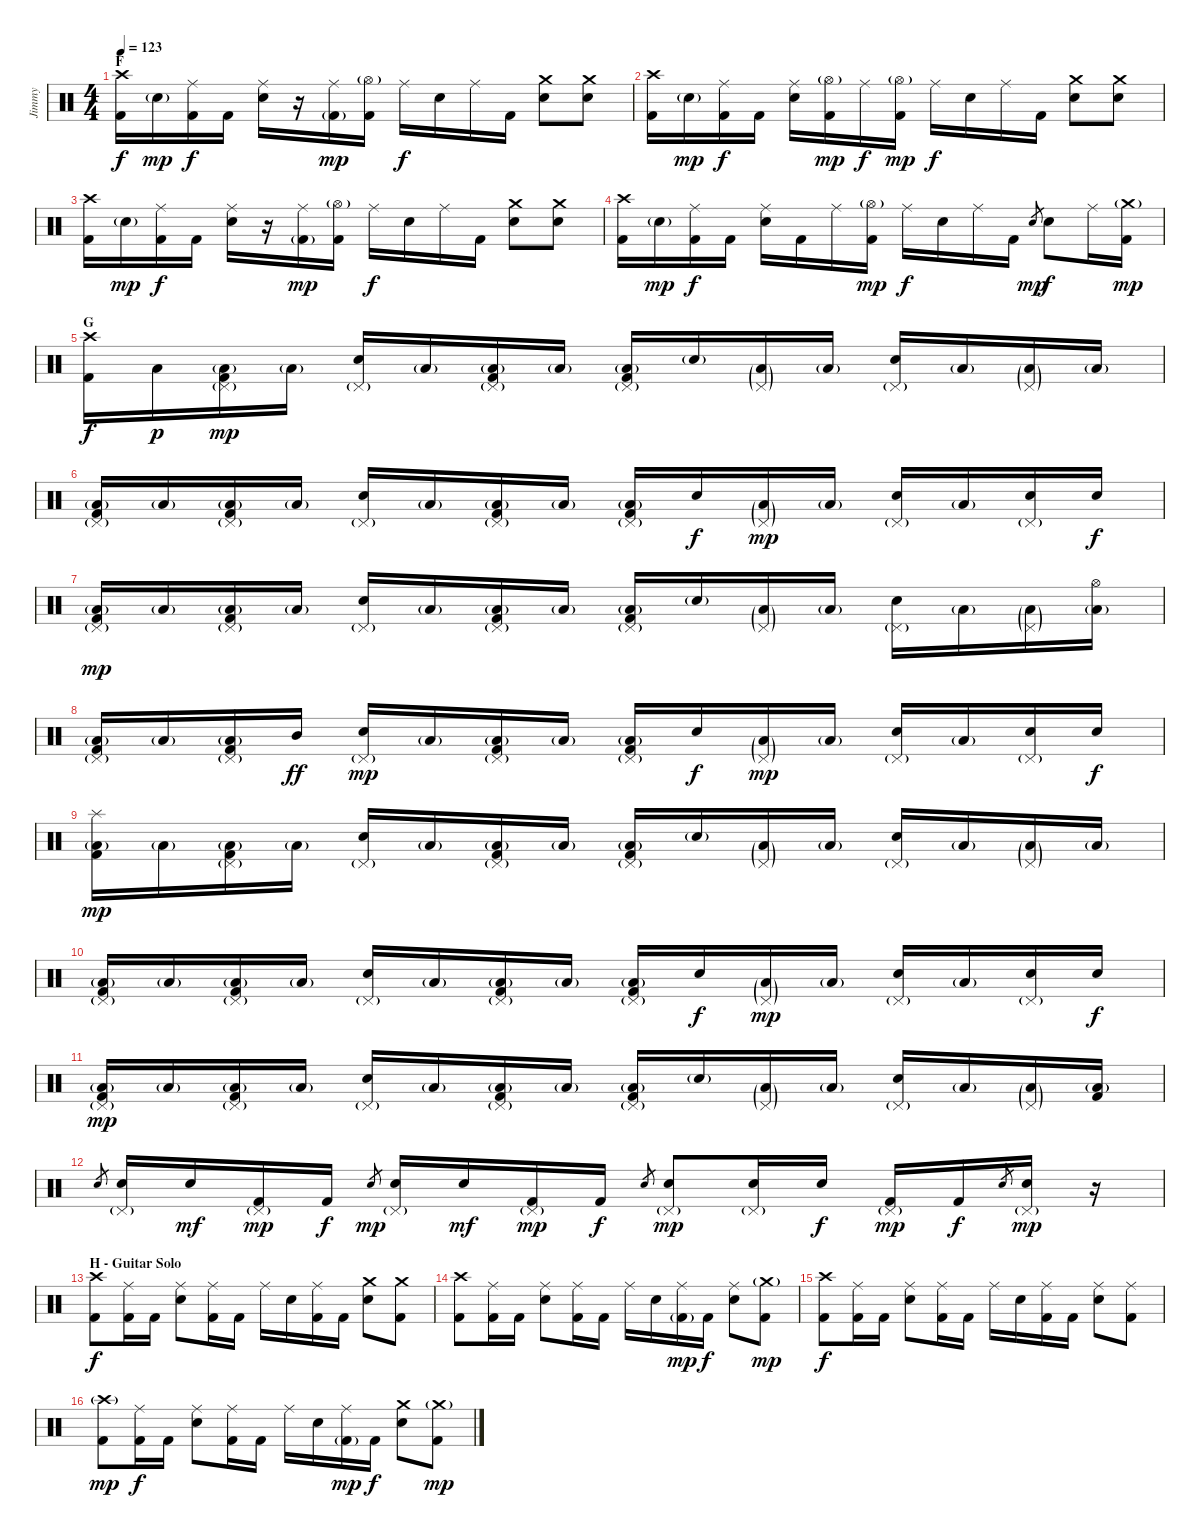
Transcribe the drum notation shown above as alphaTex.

\track ("Jimmy" "Jimmy") {instrument percussion}
\staff {score}
\articulation defaults
\ts (4 4)
\section ("" "F")
\tempo 123
\clef neutral
\ks c
("Crash high (hit)" "Kick (hit) 2").16{dy f} "Electric Snare (hit)"{g}.16{dy mp} ("Ride (middle)" "Kick (hit) 2").16{dy f} "Kick (hit) 2".16 ("Ride (middle)" "Electric Snare (hit)").16 r.16 ("Ride (middle)" "Kick (hit) 2"{g}).16{dy mp} ("Hi-Hat (open)"{g} "Kick (hit) 2").16 "Ride (middle)".16{dy f} "Electric Snare (hit)".16 "Ride (middle)".16 "Kick (hit) 2".16 ("Crash medium (hit)" "Electric Snare (hit)").8 ("Crash medium (hit)" "Electric Snare (hit)").8 |
("Crash high (hit)" "Kick (hit) 2").16 "Electric Snare (hit)"{g}.16{dy mp} ("Ride (middle)" "Kick (hit) 2").16{dy f} "Kick (hit) 2".16 ("Ride (middle)" "Electric Snare (hit)").16 ("Hi-Hat (open)"{g} "Kick (hit) 2").16{dy mp} "Ride (middle)".16{dy f} ("Hi-Hat (open)"{g} "Kick (hit) 2").16{dy mp} "Ride (middle)".16{dy f} "Electric Snare (hit)".16 "Ride (middle)".16 "Kick (hit) 2".16 ("Crash medium (hit)" "Electric Snare (hit)").8 ("Crash medium (hit)" "Electric Snare (hit)").8 |
("Crash high (hit)" "Kick (hit) 2").16 "Electric Snare (hit)"{g}.16{dy mp} ("Ride (middle)" "Kick (hit) 2").16{dy f} "Kick (hit) 2".16 ("Ride (middle)" "Electric Snare (hit)").16 r.16 ("Ride (middle)" "Kick (hit) 2"{g}).16{dy mp} ("Hi-Hat (open)"{g} "Kick (hit) 2").16 "Ride (middle)".16{dy f} "Electric Snare (hit)".16 "Ride (middle)".16 "Kick (hit) 2".16 ("Crash medium (hit)" "Electric Snare (hit)").8 ("Crash medium (hit)" "Electric Snare (hit)").8 |
("Crash high (hit)" "Kick (hit) 2").16 "Electric Snare (hit)"{g}.16{dy mp} ("Ride (middle)" "Kick (hit) 2").16{dy f} "Kick (hit) 2".16 ("Ride (middle)" "Electric Snare (hit)").16 "Kick (hit) 2".16 "Ride (middle)".16 ("Hi-Hat (open)"{g} "Kick (hit) 2").16{dy mp} "Ride (middle)".16{dy f} "Electric Snare (hit)".16 "Ride (middle)".16 "Kick (hit) 2".16 "Electric Snare (hit)".8{gr dy mp} "Electric Snare (hit)".8{dy f} "Ride (middle)".16 ("Crash medium (hit)"{g} "Kick (hit) 2").16{dy mp} |
\section ("" "G")
("Crash high (hit)" "Kick (hit) 2").16{dy f} "Low Tom (hit)".16{dy p} ("Pedal Hi-Hat (hit)"{g} "Low Tom (hit)"{g} "Kick (hit) 2").16{dy mp} "Low Tom (hit)"{g}.16 ("Pedal Hi-Hat (hit)"{g} "Electric Snare (hit)").16 "Low Tom (hit)"{g}.16 ("Pedal Hi-Hat (hit)"{g} "Low Tom (hit)"{g} "Kick (hit) 2").16 "Low Tom (hit)"{g}.16 ("Pedal Hi-Hat (hit)"{g} "Low Tom (hit)"{g} "Kick (hit) 2").16 "Electric Snare (hit)"{g}.16 ("Pedal Hi-Hat (hit)"{g} "Low Tom (hit)"{g}).16 "Low Tom (hit)"{g}.16 ("Pedal Hi-Hat (hit)"{g} "Electric Snare (hit)").16 "Low Tom (hit)"{g}.16 ("Pedal Hi-Hat (hit)"{g} "Low Tom (hit)"{g}).16 "Low Tom (hit)"{g}.16 |
("Pedal Hi-Hat (hit)"{g} "Low Tom (hit)"{g} "Kick (hit) 2").16 "Low Tom (hit)"{g}.16 ("Pedal Hi-Hat (hit)"{g} "Low Tom (hit)"{g} "Kick (hit) 2").16 "Low Tom (hit)"{g}.16 ("Pedal Hi-Hat (hit)"{g} "Electric Snare (hit)").16 "Low Tom (hit)"{g}.16 ("Pedal Hi-Hat (hit)"{g} "Low Tom (hit)"{g} "Kick (hit) 2").16 "Low Tom (hit)"{g}.16 ("Pedal Hi-Hat (hit)"{g} "Low Tom (hit)"{g} "Kick (hit) 2").16 "Electric Snare (hit)".16{dy f} ("Pedal Hi-Hat (hit)"{g} "Low Tom (hit)"{g}).16{dy mp} "Low Tom (hit)"{g}.16 ("Pedal Hi-Hat (hit)"{g} "Electric Snare (hit)").16 "Low Tom (hit)"{g}.16 ("Pedal Hi-Hat (hit)"{g} "Electric Snare (hit)").16 "Electric Snare (hit)".16{dy f} |
("Pedal Hi-Hat (hit)"{g} "Low Tom (hit)"{g} "Kick (hit) 2").16{dy mp} "Low Tom (hit)"{g}.16 ("Pedal Hi-Hat (hit)"{g} "Low Tom (hit)"{g} "Kick (hit) 2").16 "Low Tom (hit)"{g}.16 ("Pedal Hi-Hat (hit)"{g} "Electric Snare (hit)").16 "Low Tom (hit)"{g}.16 ("Pedal Hi-Hat (hit)"{g} "Low Tom (hit)"{g} "Kick (hit) 2").16 "Low Tom (hit)"{g}.16 ("Pedal Hi-Hat (hit)"{g} "Low Tom (hit)"{g} "Kick (hit) 2").16 "Electric Snare (hit)"{g}.16 ("Pedal Hi-Hat (hit)"{g} "Low Tom (hit)"{g}).16 "Low Tom (hit)"{g}.16 ("Pedal Hi-Hat (hit)"{g} "Electric Snare (hit)").16 "Low Tom (hit)"{g}.16 ("Pedal Hi-Hat (hit)"{g} "Low Tom (hit)"{g}).16 ("Hi-Hat (open)" "Low Tom (hit)"{g}).16 |
("Pedal Hi-Hat (hit)"{g} "Low Tom (hit)"{g} "Kick (hit) 2").16 "Low Tom (hit)"{g}.16 ("Pedal Hi-Hat (hit)"{g} "Low Tom (hit)"{g} "Kick (hit) 2").16 "Mid Tom (hit)".16{dy ff} ("Pedal Hi-Hat (hit)"{g} "Electric Snare (hit)").16{dy mp} "Low Tom (hit)"{g}.16 ("Pedal Hi-Hat (hit)"{g} "Low Tom (hit)"{g} "Kick (hit) 2").16 "Low Tom (hit)"{g}.16 ("Pedal Hi-Hat (hit)"{g} "Low Tom (hit)"{g} "Kick (hit) 2").16 "Electric Snare (hit)".16{dy f} ("Pedal Hi-Hat (hit)"{g} "Low Tom (hit)"{g}).16{dy mp} "Low Tom (hit)"{g}.16 ("Pedal Hi-Hat (hit)"{g} "Electric Snare (hit)").16 "Low Tom (hit)"{g}.16 ("Pedal Hi-Hat (hit)"{g} "Electric Snare (hit)").16 "Electric Snare (hit)".16{dy f} |
("Splash (hit)" "Low Tom (hit)"{g} "Kick (hit) 2").16{dy mp} "Low Tom (hit)"{g}.16 ("Pedal Hi-Hat (hit)"{g} "Low Tom (hit)"{g} "Kick (hit) 2").16 "Low Tom (hit)"{g}.16 ("Pedal Hi-Hat (hit)"{g} "Electric Snare (hit)").16 "Low Tom (hit)"{g}.16 ("Pedal Hi-Hat (hit)"{g} "Low Tom (hit)"{g} "Kick (hit) 2").16 "Low Tom (hit)"{g}.16 ("Pedal Hi-Hat (hit)"{g} "Low Tom (hit)"{g} "Kick (hit) 2").16 "Electric Snare (hit)"{g}.16 ("Pedal Hi-Hat (hit)"{g} "Low Tom (hit)"{g}).16 "Low Tom (hit)"{g}.16 ("Pedal Hi-Hat (hit)"{g} "Electric Snare (hit)").16 "Low Tom (hit)"{g}.16 ("Pedal Hi-Hat (hit)"{g} "Low Tom (hit)"{g}).16 "Low Tom (hit)"{g}.16 |
("Pedal Hi-Hat (hit)"{g} "Low Tom (hit)"{g} "Kick (hit) 2").16 "Low Tom (hit)"{g}.16 ("Pedal Hi-Hat (hit)"{g} "Low Tom (hit)"{g} "Kick (hit) 2").16 "Low Tom (hit)"{g}.16 ("Pedal Hi-Hat (hit)"{g} "Electric Snare (hit)").16 "Low Tom (hit)"{g}.16 ("Pedal Hi-Hat (hit)"{g} "Low Tom (hit)"{g} "Kick (hit) 2").16 "Low Tom (hit)"{g}.16 ("Pedal Hi-Hat (hit)"{g} "Low Tom (hit)"{g} "Kick (hit) 2").16 "Electric Snare (hit)".16{dy f} ("Pedal Hi-Hat (hit)"{g} "Low Tom (hit)"{g}).16{dy mp} "Low Tom (hit)"{g}.16 ("Pedal Hi-Hat (hit)"{g} "Electric Snare (hit)").16 "Low Tom (hit)"{g}.16 ("Pedal Hi-Hat (hit)"{g} "Electric Snare (hit)").16 "Electric Snare (hit)".16{dy f} |
("Pedal Hi-Hat (hit)"{g} "Low Tom (hit)"{g} "Kick (hit) 2").16{dy mp} "Low Tom (hit)"{g}.16 ("Pedal Hi-Hat (hit)"{g} "Low Tom (hit)"{g} "Kick (hit) 2").16 "Low Tom (hit)"{g}.16 ("Pedal Hi-Hat (hit)"{g} "Electric Snare (hit)").16 "Low Tom (hit)"{g}.16 ("Pedal Hi-Hat (hit)"{g} "Low Tom (hit)"{g} "Kick (hit) 2").16 "Low Tom (hit)"{g}.16 ("Pedal Hi-Hat (hit)"{g} "Low Tom (hit)"{g} "Kick (hit) 2").16 "Electric Snare (hit)"{g}.16 ("Pedal Hi-Hat (hit)"{g} "Low Tom (hit)"{g}).16 "Low Tom (hit)"{g}.16 ("Pedal Hi-Hat (hit)"{g} "Electric Snare (hit)").16 "Low Tom (hit)"{g}.16 ("Pedal Hi-Hat (hit)"{g} "Low Tom (hit)"{g}).16 ("Low Tom (hit)"{g} "Kick (hit) 2").16 |
"Electric Snare (hit)".8{gr} ("Pedal Hi-Hat (hit)"{g} "Electric Snare (hit)").16 "Electric Snare (hit)".16{dy mf} ("Pedal Hi-Hat (hit)"{g} "Kick (hit) 2").16{dy mp} "Kick (hit) 2".16{dy f} "Electric Snare (hit)".8{gr dy mp} ("Pedal Hi-Hat (hit)"{g} "Electric Snare (hit)").16 "Electric Snare (hit)".16{dy mf} ("Pedal Hi-Hat (hit)"{g} "Kick (hit) 2").16{dy mp} "Kick (hit) 2".16{dy f} "Electric Snare (hit)".8{gr} ("Pedal Hi-Hat (hit)"{g} "Electric Snare (hit)").8{dy mp} ("Pedal Hi-Hat (hit)"{g} "Electric Snare (hit)").16 "Electric Snare (hit)".16{dy f} ("Pedal Hi-Hat (hit)"{g} "Kick (hit) 2").16{dy mp} "Kick (hit) 2".16{dy f} "Electric Snare (hit)".8{gr} ("Pedal Hi-Hat (hit)"{g} "Electric Snare (hit)").16{dy mp} r.16 |
\section ("" "H - Guitar Solo")
("Crash high (hit)" "Kick (hit) 2").8{dy f} ("Ride (middle)" "Kick (hit) 2").16 "Kick (hit) 2".16 ("Ride (middle)" "Electric Snare (hit)").8 ("Ride (middle)" "Kick (hit) 2").16 "Kick (hit) 2".16 "Ride (middle)".16 "Electric Snare (hit)".16 ("Ride (middle)" "Kick (hit) 2").16 "Kick (hit) 2".16 ("Crash medium (hit)" "Electric Snare (hit)").8 ("Crash medium (hit)" "Kick (hit) 2").8 |
("Crash high (hit)" "Kick (hit) 2").8 ("Ride (middle)" "Kick (hit) 2").16 "Kick (hit) 2".16 ("Ride (middle)" "Electric Snare (hit)").8 ("Ride (middle)" "Kick (hit) 2").16 "Kick (hit) 2".16 "Ride (middle)".16 "Electric Snare (hit)".16 ("Ride (middle)" "Kick (hit) 2"{g}).16{dy mp} "Kick (hit) 2".16{dy f} ("Ride (middle)" "Electric Snare (hit)").8 ("Crash medium (hit)"{g} "Kick (hit) 2").8{dy mp} |
("Crash high (hit)" "Kick (hit) 2").8{dy f} ("Ride (middle)" "Kick (hit) 2").16 "Kick (hit) 2".16 ("Ride (middle)" "Electric Snare (hit)").8 ("Ride (middle)" "Kick (hit) 2").16 "Kick (hit) 2".16 "Ride (middle)".16 "Electric Snare (hit)".16 ("Ride (middle)" "Kick (hit) 2").16 "Kick (hit) 2".16 ("Ride (middle)" "Electric Snare (hit)").8 ("Ride (middle)" "Kick (hit) 2").8 |
("Crash high (hit)"{g} "Kick (hit) 2").8{dy mp} ("Ride (middle)" "Kick (hit) 2").16{dy f} "Kick (hit) 2".16 ("Ride (middle)" "Electric Snare (hit)").8 ("Ride (middle)" "Kick (hit) 2").16 "Kick (hit) 2".16 "Ride (middle)".16 "Electric Snare (hit)".16 ("Ride (middle)" "Kick (hit) 2"{g}).16{dy mp} "Kick (hit) 2".16{dy f} ("Crash medium (hit)" "Electric Snare (hit)").8 ("Crash medium (hit)"{g} "Kick (hit) 2").8{dy mp}
